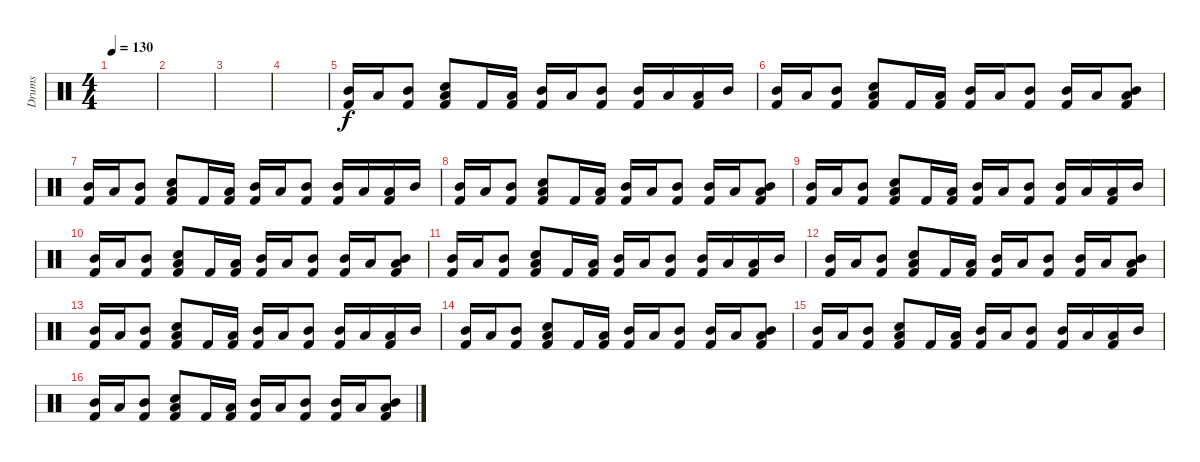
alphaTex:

\track ("Drums" "Drums") {instrument percussion}
\staff {score}
\articulation defaults
\ts (4 4)
\tempo 130
\clef neutral
\ks c
|
|
|
|
("Mid Tom (hit)" "Kick (hit) 2").16 "Low Tom (hit)".16 ("Mid Tom (hit)" "Kick (hit) 2").8 ("Electric Snare (hit)" "Low Floor Tom (hit)" "Kick (hit) 2").8 "Kick (hit) 2".16 ("Low Floor Tom (hit)" "Kick (hit) 2").16 ("Mid Tom (hit)" "Kick (hit) 2").16 "Low Tom (hit)".16 ("Mid Tom (hit)" "Kick (hit) 2").8 ("Mid Tom (hit)" "Kick (hit) 2").16 "Low Tom (hit)".16 ("Low Floor Tom (hit)" "Kick (hit) 2").16 "Mid Tom (hit)".16 |
("Mid Tom (hit)" "Kick (hit) 2").16 "Low Tom (hit)".16 ("Mid Tom (hit)" "Kick (hit) 2").8 ("Electric Snare (hit)" "Low Floor Tom (hit)" "Kick (hit) 2").8 "Kick (hit) 2".16 ("Low Floor Tom (hit)" "Kick (hit) 2").16 ("Mid Tom (hit)" "Kick (hit) 2").16 "Low Tom (hit)".16 ("Mid Tom (hit)" "Kick (hit) 2").8 ("Mid Tom (hit)" "Kick (hit) 2").16 "Low Tom (hit)".16 ("Mid Tom (hit)" "Low Floor Tom (hit)" "Kick (hit) 2").8 |
("Mid Tom (hit)" "Kick (hit) 2").16 "Low Tom (hit)".16 ("Mid Tom (hit)" "Kick (hit) 2").8 ("Electric Snare (hit)" "Low Floor Tom (hit)" "Kick (hit) 2").8 "Kick (hit) 2".16 ("Low Floor Tom (hit)" "Kick (hit) 2").16 ("Mid Tom (hit)" "Kick (hit) 2").16 "Low Tom (hit)".16 ("Mid Tom (hit)" "Kick (hit) 2").8 ("Mid Tom (hit)" "Kick (hit) 2").16 "Low Tom (hit)".16 ("Low Floor Tom (hit)" "Kick (hit) 2").16 "Mid Tom (hit)".16 |
("Mid Tom (hit)" "Kick (hit) 2").16 "Low Tom (hit)".16 ("Mid Tom (hit)" "Kick (hit) 2").8 ("Electric Snare (hit)" "Low Floor Tom (hit)" "Kick (hit) 2").8 "Kick (hit) 2".16 ("Low Floor Tom (hit)" "Kick (hit) 2").16 ("Mid Tom (hit)" "Kick (hit) 2").16 "Low Tom (hit)".16 ("Mid Tom (hit)" "Kick (hit) 2").8 ("Mid Tom (hit)" "Kick (hit) 2").16 "Low Tom (hit)".16 ("Mid Tom (hit)" "Low Floor Tom (hit)" "Kick (hit) 2").8 |
("Mid Tom (hit)" "Kick (hit) 2").16 "Low Tom (hit)".16 ("Mid Tom (hit)" "Kick (hit) 2").8 ("Electric Snare (hit)" "Low Floor Tom (hit)" "Kick (hit) 2").8 "Kick (hit) 2".16 ("Low Floor Tom (hit)" "Kick (hit) 2").16 ("Mid Tom (hit)" "Kick (hit) 2").16 "Low Tom (hit)".16 ("Mid Tom (hit)" "Kick (hit) 2").8 ("Mid Tom (hit)" "Kick (hit) 2").16 "Low Tom (hit)".16 ("Low Floor Tom (hit)" "Kick (hit) 2").16 "Mid Tom (hit)".16 |
("Mid Tom (hit)" "Kick (hit) 2").16 "Low Tom (hit)".16 ("Mid Tom (hit)" "Kick (hit) 2").8 ("Electric Snare (hit)" "Low Floor Tom (hit)" "Kick (hit) 2").8 "Kick (hit) 2".16 ("Low Floor Tom (hit)" "Kick (hit) 2").16 ("Mid Tom (hit)" "Kick (hit) 2").16 "Low Tom (hit)".16 ("Mid Tom (hit)" "Kick (hit) 2").8 ("Mid Tom (hit)" "Kick (hit) 2").16 "Low Tom (hit)".16 ("Mid Tom (hit)" "Low Floor Tom (hit)" "Kick (hit) 2").8 |
("Mid Tom (hit)" "Kick (hit) 2").16 "Low Tom (hit)".16 ("Mid Tom (hit)" "Kick (hit) 2").8 ("Electric Snare (hit)" "Low Floor Tom (hit)" "Kick (hit) 2").8 "Kick (hit) 2".16 ("Low Floor Tom (hit)" "Kick (hit) 2").16 ("Mid Tom (hit)" "Kick (hit) 2").16 "Low Tom (hit)".16 ("Mid Tom (hit)" "Kick (hit) 2").8 ("Mid Tom (hit)" "Kick (hit) 2").16 "Low Tom (hit)".16 ("Low Floor Tom (hit)" "Kick (hit) 2").16 "Mid Tom (hit)".16 |
("Mid Tom (hit)" "Kick (hit) 2").16 "Low Tom (hit)".16 ("Mid Tom (hit)" "Kick (hit) 2").8 ("Electric Snare (hit)" "Low Floor Tom (hit)" "Kick (hit) 2").8 "Kick (hit) 2".16 ("Low Floor Tom (hit)" "Kick (hit) 2").16 ("Mid Tom (hit)" "Kick (hit) 2").16 "Low Tom (hit)".16 ("Mid Tom (hit)" "Kick (hit) 2").8 ("Mid Tom (hit)" "Kick (hit) 2").16 "Low Tom (hit)".16 ("Mid Tom (hit)" "Low Floor Tom (hit)" "Kick (hit) 2").8 |
("Mid Tom (hit)" "Kick (hit) 2").16 "Low Tom (hit)".16 ("Mid Tom (hit)" "Kick (hit) 2").8 ("Electric Snare (hit)" "Low Floor Tom (hit)" "Kick (hit) 2").8 "Kick (hit) 2".16 ("Low Floor Tom (hit)" "Kick (hit) 2").16 ("Mid Tom (hit)" "Kick (hit) 2").16 "Low Tom (hit)".16 ("Mid Tom (hit)" "Kick (hit) 2").8 ("Mid Tom (hit)" "Kick (hit) 2").16 "Low Tom (hit)".16 ("Low Floor Tom (hit)" "Kick (hit) 2").16 "Mid Tom (hit)".16 |
("Mid Tom (hit)" "Kick (hit) 2").16 "Low Tom (hit)".16 ("Mid Tom (hit)" "Kick (hit) 2").8 ("Electric Snare (hit)" "Low Floor Tom (hit)" "Kick (hit) 2").8 "Kick (hit) 2".16 ("Low Floor Tom (hit)" "Kick (hit) 2").16 ("Mid Tom (hit)" "Kick (hit) 2").16 "Low Tom (hit)".16 ("Mid Tom (hit)" "Kick (hit) 2").8 ("Mid Tom (hit)" "Kick (hit) 2").16 "Low Tom (hit)".16 ("Mid Tom (hit)" "Low Floor Tom (hit)" "Kick (hit) 2").8 |
("Mid Tom (hit)" "Kick (hit) 2").16 "Low Tom (hit)".16 ("Mid Tom (hit)" "Kick (hit) 2").8 ("Electric Snare (hit)" "Low Floor Tom (hit)" "Kick (hit) 2").8 "Kick (hit) 2".16 ("Low Floor Tom (hit)" "Kick (hit) 2").16 ("Mid Tom (hit)" "Kick (hit) 2").16 "Low Tom (hit)".16 ("Mid Tom (hit)" "Kick (hit) 2").8 ("Mid Tom (hit)" "Kick (hit) 2").16 "Low Tom (hit)".16 ("Low Floor Tom (hit)" "Kick (hit) 2").16 "Mid Tom (hit)".16 |
("Mid Tom (hit)" "Kick (hit) 2").16 "Low Tom (hit)".16 ("Mid Tom (hit)" "Kick (hit) 2").8 ("Electric Snare (hit)" "Low Floor Tom (hit)" "Kick (hit) 2").8 "Kick (hit) 2".16 ("Low Floor Tom (hit)" "Kick (hit) 2").16 ("Mid Tom (hit)" "Kick (hit) 2").16 "Low Tom (hit)".16 ("Mid Tom (hit)" "Kick (hit) 2").8 ("Mid Tom (hit)" "Kick (hit) 2").16 "Low Tom (hit)".16 ("Mid Tom (hit)" "Low Floor Tom (hit)" "Kick (hit) 2").8
